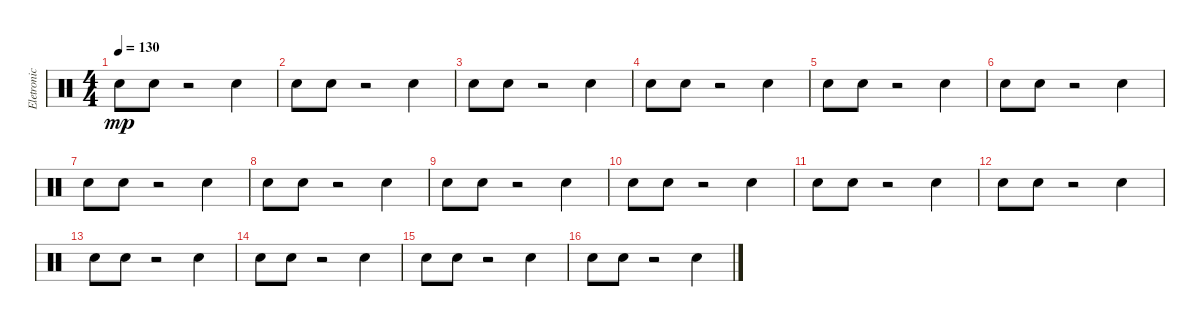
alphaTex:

\track ("Eletronic drum" "Eletronic ") {instrument percussion}
\staff {score}
\articulation defaults
\ts (4 4)
\tempo 130
\clef neutral
\ks c "Snare (hit) 2".8{dy mp} "Hand Clap (hit)".8
r.2 "Hand Clap (hit)".4 |
"Snare (hit) 2".8 "Hand Clap (hit)".8 r.2 "Hand Clap (hit)".4 |
"Snare (hit) 2".8 "Hand Clap (hit)".8 r.2 "Hand Clap (hit)".4 |
"Snare (hit) 2".8 "Hand Clap (hit)".8 r.2 "Hand Clap (hit)".4 |
"Snare (hit) 2".8 "Hand Clap (hit)".8 r.2 "Hand Clap (hit)".4 |
"Snare (hit) 2".8 "Hand Clap (hit)".8 r.2 "Hand Clap (hit)".4 |
"Snare (hit) 2".8 "Hand Clap (hit)".8 r.2 "Hand Clap (hit)".4 |
"Snare (hit) 2".8 "Hand Clap (hit)".8 r.2 "Hand Clap (hit)".4 |
"Snare (hit) 2".8 "Hand Clap (hit)".8 r.2 "Hand Clap (hit)".4 |
"Snare (hit) 2".8 "Hand Clap (hit)".8 r.2 "Hand Clap (hit)".4 |
"Snare (hit) 2".8 "Hand Clap (hit)".8 r.2 "Hand Clap (hit)".4 |
"Snare (hit) 2".8 "Hand Clap (hit)".8 r.2 "Hand Clap (hit)".4 |
"Snare (hit) 2".8 "Hand Clap (hit)".8 r.2 "Hand Clap (hit)".4 |
"Snare (hit) 2".8 "Hand Clap (hit)".8 r.2 "Hand Clap (hit)".4 |
"Snare (hit) 2".8 "Hand Clap (hit)".8 r.2 "Hand Clap (hit)".4 |
"Snare (hit) 2".8 "Hand Clap (hit)".8 r.2 "Hand Clap (hit)".4
